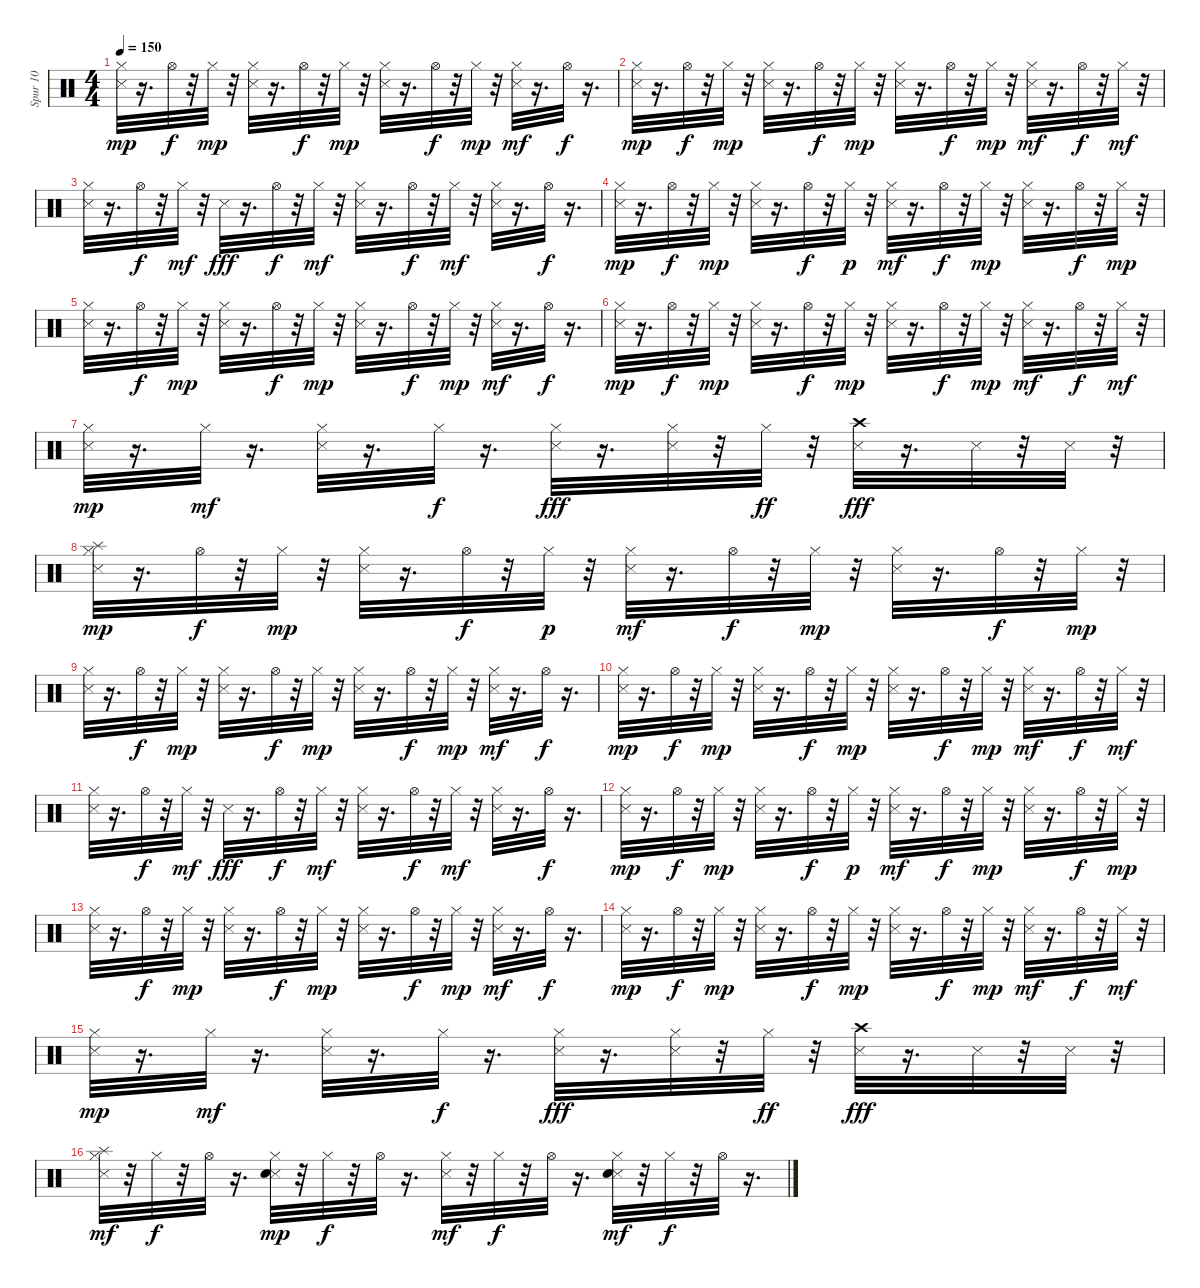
\track ("Spur 10" "Spur 10") {instrument percussion}
\staff {score}
\articulation defaults
\ts (4 4)
\tempo 150
\clef neutral
\ks c
("Metronome (hit)" "Hi-Hat (closed)").32{dy mp} r.16{d} "Hi-Hat (open)".32{dy f} r.32 "Hi-Hat (closed)".32{dy mp} r.32 ("Metronome (hit)" "Hi-Hat (closed)").32 r.16{d} "Hi-Hat (open)".32{dy f} r.32 "Hi-Hat (closed)".32{dy mp} r.32 ("Metronome (hit)" "Hi-Hat (closed)").32 r.16{d} "Hi-Hat (open)".32{dy f} r.32 "Hi-Hat (closed)".32{dy mp} r.32 ("Metronome (hit)" "Hi-Hat (closed)").32{dy mf} r.16{d} "Hi-Hat (open)".32{dy f} r.16{d} |
("Metronome (hit)" "Hi-Hat (closed)").32{dy mp} r.16{d} "Hi-Hat (open)".32{dy f} r.32 "Hi-Hat (closed)".32{dy mp} r.32 ("Metronome (hit)" "Hi-Hat (closed)").32 r.16{d} "Hi-Hat (open)".32{dy f} r.32 "Hi-Hat (closed)".32{dy mp} r.32 ("Metronome (hit)" "Hi-Hat (closed)").32 r.16{d} "Hi-Hat (open)".32{dy f} r.32 "Hi-Hat (closed)".32{dy mp} r.32 ("Metronome (hit)" "Hi-Hat (closed)").32{dy mf} r.16{d} "Hi-Hat (open)".32{dy f} r.32 "Hi-Hat (closed)".32{dy mf} r.32 |
("Metronome (hit)" "Hi-Hat (closed)").32 r.16{d} "Hi-Hat (open)".32{dy f} r.32 "Hi-Hat (closed)".32{dy mf} r.32 "Metronome (hit)".32{dy fff} r.16{d} "Hi-Hat (open)".32{dy f} r.32 "Hi-Hat (closed)".32{dy mf} r.32 ("Metronome (hit)" "Hi-Hat (closed)").32 r.16{d} "Hi-Hat (open)".32{dy f} r.32 "Hi-Hat (closed)".32{dy mf} r.32 ("Metronome (hit)" "Hi-Hat (closed)").32 r.16{d} "Hi-Hat (open)".32{dy f} r.16{d} |
("Metronome (hit)" "Hi-Hat (closed)").32{dy mp} r.16{d} "Hi-Hat (open)".32{dy f} r.32 "Hi-Hat (closed)".32{dy mp} r.32 ("Metronome (hit)" "Hi-Hat (closed)").32 r.16{d} "Hi-Hat (open)".32{dy f} r.32 "Hi-Hat (closed)".32{dy p} r.32 ("Metronome (hit)" "Hi-Hat (closed)").32{dy mf} r.16{d} "Hi-Hat (open)".32{dy f} r.32 "Hi-Hat (closed)".32{dy mp} r.32 ("Metronome (hit)" "Hi-Hat (closed)").32 r.16{d} "Hi-Hat (open)".32{dy f} r.32 "Hi-Hat (closed)".32{dy mp} r.32 |
("Metronome (hit)" "Hi-Hat (closed)").32 r.16{d} "Hi-Hat (open)".32{dy f} r.32 "Hi-Hat (closed)".32{dy mp} r.32 ("Metronome (hit)" "Hi-Hat (closed)").32 r.16{d} "Hi-Hat (open)".32{dy f} r.32 "Hi-Hat (closed)".32{dy mp} r.32 ("Metronome (hit)" "Hi-Hat (closed)").32 r.16{d} "Hi-Hat (open)".32{dy f} r.32 "Hi-Hat (closed)".32{dy mp} r.32 ("Metronome (hit)" "Hi-Hat (closed)").32{dy mf} r.16{d} "Hi-Hat (open)".32{dy f} r.16{d} |
("Metronome (hit)" "Hi-Hat (closed)").32{dy mp} r.16{d} "Hi-Hat (open)".32{dy f} r.32 "Hi-Hat (closed)".32{dy mp} r.32 ("Metronome (hit)" "Hi-Hat (closed)").32 r.16{d} "Hi-Hat (open)".32{dy f} r.32 "Hi-Hat (closed)".32{dy mp} r.32 ("Metronome (hit)" "Hi-Hat (closed)").32 r.16{d} "Hi-Hat (open)".32{dy f} r.32 "Hi-Hat (closed)".32{dy mp} r.32 ("Metronome (hit)" "Hi-Hat (closed)").32{dy mf} r.16{d} "Hi-Hat (open)".32{dy f} r.32 "Hi-Hat (closed)".32{dy mf} r.32 |
("Metronome (hit)" "Hi-Hat (closed)").32{dy mp} r.16{d} "Hi-Hat (closed)".32{dy mf} r.16{d} ("Metronome (hit)" "Hi-Hat (closed)").32 r.16{d} "Hi-Hat (closed)".32{dy f} r.16{d} ("Metronome (hit)" "Hi-Hat (closed)").32{dy fff} r.16{d} ("Metronome (hit)" "Hi-Hat (closed)").32 r.32 "Hi-Hat (closed)".32{dy ff} r.32 ("Metronome (hit)" "Crash high (hit)").32{dy fff} r.16{d} "Metronome (hit)".32 r.32 "Metronome (hit)".32 r.32 |
("Splash (hit)" "Metronome (hit)" "Hi-Hat (closed)").32{dy mp} r.16{d} "Hi-Hat (open)".32{dy f} r.32 "Hi-Hat (closed)".32{dy mp} r.32 ("Metronome (hit)" "Hi-Hat (closed)").32 r.16{d} "Hi-Hat (open)".32{dy f} r.32 "Hi-Hat (closed)".32{dy p} r.32 ("Metronome (hit)" "Hi-Hat (closed)").32{dy mf} r.16{d} "Hi-Hat (open)".32{dy f} r.32 "Hi-Hat (closed)".32{dy mp} r.32 ("Metronome (hit)" "Hi-Hat (closed)").32 r.16{d} "Hi-Hat (open)".32{dy f} r.32 "Hi-Hat (closed)".32{dy mp} r.32 |
("Metronome (hit)" "Hi-Hat (closed)").32 r.16{d} "Hi-Hat (open)".32{dy f} r.32 "Hi-Hat (closed)".32{dy mp} r.32 ("Metronome (hit)" "Hi-Hat (closed)").32 r.16{d} "Hi-Hat (open)".32{dy f} r.32 "Hi-Hat (closed)".32{dy mp} r.32 ("Metronome (hit)" "Hi-Hat (closed)").32 r.16{d} "Hi-Hat (open)".32{dy f} r.32 "Hi-Hat (closed)".32{dy mp} r.32 ("Metronome (hit)" "Hi-Hat (closed)").32{dy mf} r.16{d} "Hi-Hat (open)".32{dy f} r.16{d} |
("Metronome (hit)" "Hi-Hat (closed)").32{dy mp} r.16{d} "Hi-Hat (open)".32{dy f} r.32 "Hi-Hat (closed)".32{dy mp} r.32 ("Metronome (hit)" "Hi-Hat (closed)").32 r.16{d} "Hi-Hat (open)".32{dy f} r.32 "Hi-Hat (closed)".32{dy mp} r.32 ("Metronome (hit)" "Hi-Hat (closed)").32 r.16{d} "Hi-Hat (open)".32{dy f} r.32 "Hi-Hat (closed)".32{dy mp} r.32 ("Metronome (hit)" "Hi-Hat (closed)").32{dy mf} r.16{d} "Hi-Hat (open)".32{dy f} r.32 "Hi-Hat (closed)".32{dy mf} r.32 |
("Metronome (hit)" "Hi-Hat (closed)").32 r.16{d} "Hi-Hat (open)".32{dy f} r.32 "Hi-Hat (closed)".32{dy mf} r.32 "Metronome (hit)".32{dy fff} r.16{d} "Hi-Hat (open)".32{dy f} r.32 "Hi-Hat (closed)".32{dy mf} r.32 ("Metronome (hit)" "Hi-Hat (closed)").32 r.16{d} "Hi-Hat (open)".32{dy f} r.32 "Hi-Hat (closed)".32{dy mf} r.32 ("Metronome (hit)" "Hi-Hat (closed)").32 r.16{d} "Hi-Hat (open)".32{dy f} r.16{d} |
("Metronome (hit)" "Hi-Hat (closed)").32{dy mp} r.16{d} "Hi-Hat (open)".32{dy f} r.32 "Hi-Hat (closed)".32{dy mp} r.32 ("Metronome (hit)" "Hi-Hat (closed)").32 r.16{d} "Hi-Hat (open)".32{dy f} r.32 "Hi-Hat (closed)".32{dy p} r.32 ("Metronome (hit)" "Hi-Hat (closed)").32{dy mf} r.16{d} "Hi-Hat (open)".32{dy f} r.32 "Hi-Hat (closed)".32{dy mp} r.32 ("Metronome (hit)" "Hi-Hat (closed)").32 r.16{d} "Hi-Hat (open)".32{dy f} r.32 "Hi-Hat (closed)".32{dy mp} r.32 |
("Metronome (hit)" "Hi-Hat (closed)").32 r.16{d} "Hi-Hat (open)".32{dy f} r.32 "Hi-Hat (closed)".32{dy mp} r.32 ("Metronome (hit)" "Hi-Hat (closed)").32 r.16{d} "Hi-Hat (open)".32{dy f} r.32 "Hi-Hat (closed)".32{dy mp} r.32 ("Metronome (hit)" "Hi-Hat (closed)").32 r.16{d} "Hi-Hat (open)".32{dy f} r.32 "Hi-Hat (closed)".32{dy mp} r.32 ("Metronome (hit)" "Hi-Hat (closed)").32{dy mf} r.16{d} "Hi-Hat (open)".32{dy f} r.16{d} |
("Metronome (hit)" "Hi-Hat (closed)").32{dy mp} r.16{d} "Hi-Hat (open)".32{dy f} r.32 "Hi-Hat (closed)".32{dy mp} r.32 ("Metronome (hit)" "Hi-Hat (closed)").32 r.16{d} "Hi-Hat (open)".32{dy f} r.32 "Hi-Hat (closed)".32{dy mp} r.32 ("Metronome (hit)" "Hi-Hat (closed)").32 r.16{d} "Hi-Hat (open)".32{dy f} r.32 "Hi-Hat (closed)".32{dy mp} r.32 ("Metronome (hit)" "Hi-Hat (closed)").32{dy mf} r.16{d} "Hi-Hat (open)".32{dy f} r.32 "Hi-Hat (closed)".32{dy mf} r.32 |
("Metronome (hit)" "Hi-Hat (closed)").32{dy mp} r.16{d} "Hi-Hat (closed)".32{dy mf} r.16{d} ("Metronome (hit)" "Hi-Hat (closed)").32 r.16{d} "Hi-Hat (closed)".32{dy f} r.16{d} ("Metronome (hit)" "Hi-Hat (closed)").32{dy fff} r.16{d} ("Metronome (hit)" "Hi-Hat (closed)").32 r.32 "Hi-Hat (closed)".32{dy ff} r.32 ("Metronome (hit)" "Crash high (hit)").32{dy fff} r.16{d} "Metronome (hit)".32 r.32 "Metronome (hit)".32 r.32 |
("Splash (hit)" "Metronome (hit)" "Hi-Hat (closed)").32{dy mf} r.32 "Hi-Hat (closed)".32{dy f} r.32 "Hi-Hat (open)".32 r.16{d} ("Metronome (hit)" "Snare (hit) 2" "Hi-Hat (closed)").32{dy mp} r.32 "Hi-Hat (closed)".32{dy f} r.32 "Hi-Hat (open)".32 r.16{d} ("Metronome (hit)" "Hi-Hat (closed)").32{dy mf} r.32 "Hi-Hat (closed)".32{dy f} r.32 "Hi-Hat (open)".32 r.16{d} ("Metronome (hit)" "Snare (hit) 2" "Hi-Hat (closed)").32{dy mf} r.32 "Hi-Hat (closed)".32{dy f} r.32 "Hi-Hat (open)".32 r.16{d}
